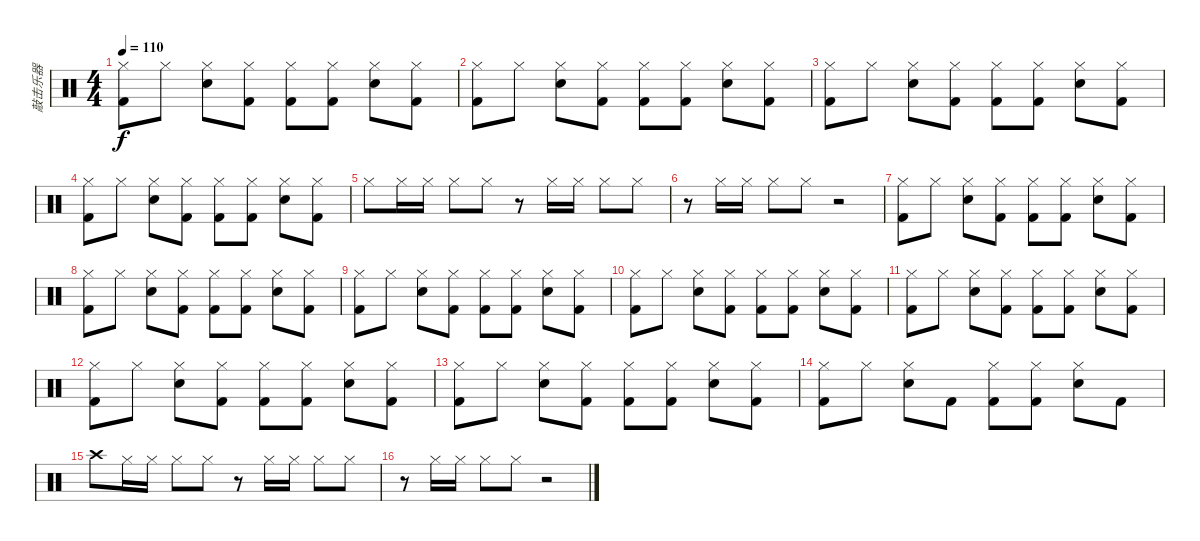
\track ("敲击乐器" "敲击乐器") {instrument percussion}
\staff {score}
\articulation defaults
\ts (4 4)
\tempo 110
\clef neutral
\ks c
("Hi-Hat (closed)" "Kick (hit) 2").8{dy f} "Hi-Hat (closed)".8 ("Electric Snare (hit)" "Hi-Hat (closed)").8 ("Hi-Hat (closed)" "Kick (hit) 2").8 ("Kick (hit) 2" "Hi-Hat (closed)").8 ("Hi-Hat (closed)" "Kick (hit) 2").8 ("Electric Snare (hit)" "Hi-Hat (closed)").8 ("Hi-Hat (closed)" "Kick (hit) 2").8 |
("Hi-Hat (closed)" "Kick (hit) 2").8 "Hi-Hat (closed)".8 ("Electric Snare (hit)" "Hi-Hat (closed)").8 ("Hi-Hat (closed)" "Kick (hit) 2").8 ("Kick (hit) 2" "Hi-Hat (closed)").8 ("Kick (hit) 2" "Hi-Hat (closed)").8 ("Electric Snare (hit)" "Hi-Hat (closed)").8 ("Hi-Hat (closed)" "Kick (hit) 2").8 |
("Kick (hit) 2" "Hi-Hat (closed)").8 "Hi-Hat (closed)".8 ("Hi-Hat (closed)" "Electric Snare (hit)").8 ("Kick (hit) 2" "Hi-Hat (closed)").8 ("Hi-Hat (closed)" "Kick (hit) 2").8 ("Hi-Hat (closed)" "Kick (hit) 2").8 ("Hi-Hat (closed)" "Electric Snare (hit)").8 ("Kick (hit) 2" "Hi-Hat (closed)").8 |
("Hi-Hat (closed)" "Kick (hit) 2").8 "Hi-Hat (closed)".8 ("Hi-Hat (closed)" "Electric Snare (hit)").8 ("Kick (hit) 2" "Hi-Hat (closed)").8 ("Hi-Hat (closed)" "Kick (hit) 2").8 ("Hi-Hat (closed)" "Kick (hit) 2").8 ("Hi-Hat (closed)" "Electric Snare (hit)").8 ("Kick (hit) 2" "Hi-Hat (closed)").8 |
"Hi-Hat (closed)".8 "Hi-Hat (closed)".16 "Hi-Hat (closed)".16 "Hi-Hat (closed)".8 "Hi-Hat (closed)".8 r.8 "Hi-Hat (closed)".16 "Hi-Hat (closed)".16 "Hi-Hat (closed)".8 "Hi-Hat (closed)".8 |
r.8 "Hi-Hat (closed)".16 "Hi-Hat (closed)".16 "Hi-Hat (closed)".8 "Hi-Hat (closed)".8 r.2 |
("Hi-Hat (closed)" "Kick (hit) 2").8 "Hi-Hat (closed)".8 ("Hi-Hat (closed)" "Electric Snare (hit)").8 ("Kick (hit) 2" "Hi-Hat (closed)").8 ("Hi-Hat (closed)" "Kick (hit) 2").8 ("Kick (hit) 2" "Hi-Hat (closed)").8 ("Hi-Hat (closed)" "Electric Snare (hit)").8 ("Kick (hit) 2" "Hi-Hat (closed)").8 |
("Hi-Hat (closed)" "Kick (hit) 2").8 "Hi-Hat (closed)".8 ("Electric Snare (hit)" "Hi-Hat (closed)").8 ("Hi-Hat (closed)" "Kick (hit) 2").8 ("Kick (hit) 2" "Hi-Hat (closed)").8 ("Hi-Hat (closed)" "Kick (hit) 2").8 ("Electric Snare (hit)" "Hi-Hat (closed)").8 ("Hi-Hat (closed)" "Kick (hit) 2").8 |
("Hi-Hat (closed)" "Kick (hit) 2").8 "Hi-Hat (closed)".8 ("Electric Snare (hit)" "Hi-Hat (closed)").8 ("Kick (hit) 2" "Hi-Hat (closed)").8 ("Kick (hit) 2" "Hi-Hat (closed)").8 ("Kick (hit) 2" "Hi-Hat (closed)").8 ("Hi-Hat (closed)" "Electric Snare (hit)").8 ("Kick (hit) 2" "Hi-Hat (closed)").8 |
("Hi-Hat (closed)" "Kick (hit) 2").8 "Hi-Hat (closed)".8 ("Electric Snare (hit)" "Hi-Hat (closed)").8 ("Hi-Hat (closed)" "Kick (hit) 2").8 ("Kick (hit) 2" "Hi-Hat (closed)").8 ("Kick (hit) 2" "Hi-Hat (closed)").8 ("Electric Snare (hit)" "Hi-Hat (closed)").8 ("Hi-Hat (closed)" "Kick (hit) 2").8 |
("Kick (hit) 2" "Hi-Hat (closed)").8 "Hi-Hat (closed)".8 ("Hi-Hat (closed)" "Electric Snare (hit)").8 ("Kick (hit) 2" "Hi-Hat (closed)").8 ("Hi-Hat (closed)" "Kick (hit) 2").8 ("Hi-Hat (closed)" "Kick (hit) 2").8 ("Hi-Hat (closed)" "Electric Snare (hit)").8 ("Kick (hit) 2" "Hi-Hat (closed)").8 |
("Hi-Hat (closed)" "Kick (hit) 2").8 "Hi-Hat (closed)".8 ("Electric Snare (hit)" "Hi-Hat (closed)").8 ("Hi-Hat (closed)" "Kick (hit) 2").8 ("Kick (hit) 2" "Hi-Hat (closed)").8 ("Kick (hit) 2" "Hi-Hat (closed)").8 ("Electric Snare (hit)" "Hi-Hat (closed)").8 ("Hi-Hat (closed)" "Kick (hit) 2").8 |
("Hi-Hat (closed)" "Kick (hit) 2").8 "Hi-Hat (closed)".8 ("Hi-Hat (closed)" "Electric Snare (hit)").8 ("Kick (hit) 2" "Hi-Hat (closed)").8 ("Hi-Hat (closed)" "Kick (hit) 2").8 ("Hi-Hat (closed)" "Kick (hit) 2").8 ("Hi-Hat (closed)" "Electric Snare (hit)").8 ("Kick (hit) 2" "Hi-Hat (closed)").8 |
("Hi-Hat (closed)" "Kick (hit) 2").8 "Hi-Hat (closed)".8 ("Electric Snare (hit)" "Hi-Hat (closed)").8 "Kick (hit) 2".8 ("Hi-Hat (closed)" "Kick (hit) 2").8 ("Hi-Hat (closed)" "Kick (hit) 2").8 ("Hi-Hat (closed)" "Electric Snare (hit)").8 "Kick (hit) 2".8 |
"Crash high (hit)".8 "Hi-Hat (closed)".16 "Hi-Hat (closed)".16 "Hi-Hat (closed)".8 "Hi-Hat (closed)".8 r.8 "Hi-Hat (closed)".16 "Hi-Hat (closed)".16 "Hi-Hat (closed)".8 "Hi-Hat (closed)".8 |
r.8 "Hi-Hat (closed)".16 "Hi-Hat (closed)".16 "Hi-Hat (closed)".8 "Hi-Hat (closed)".8 r.2
